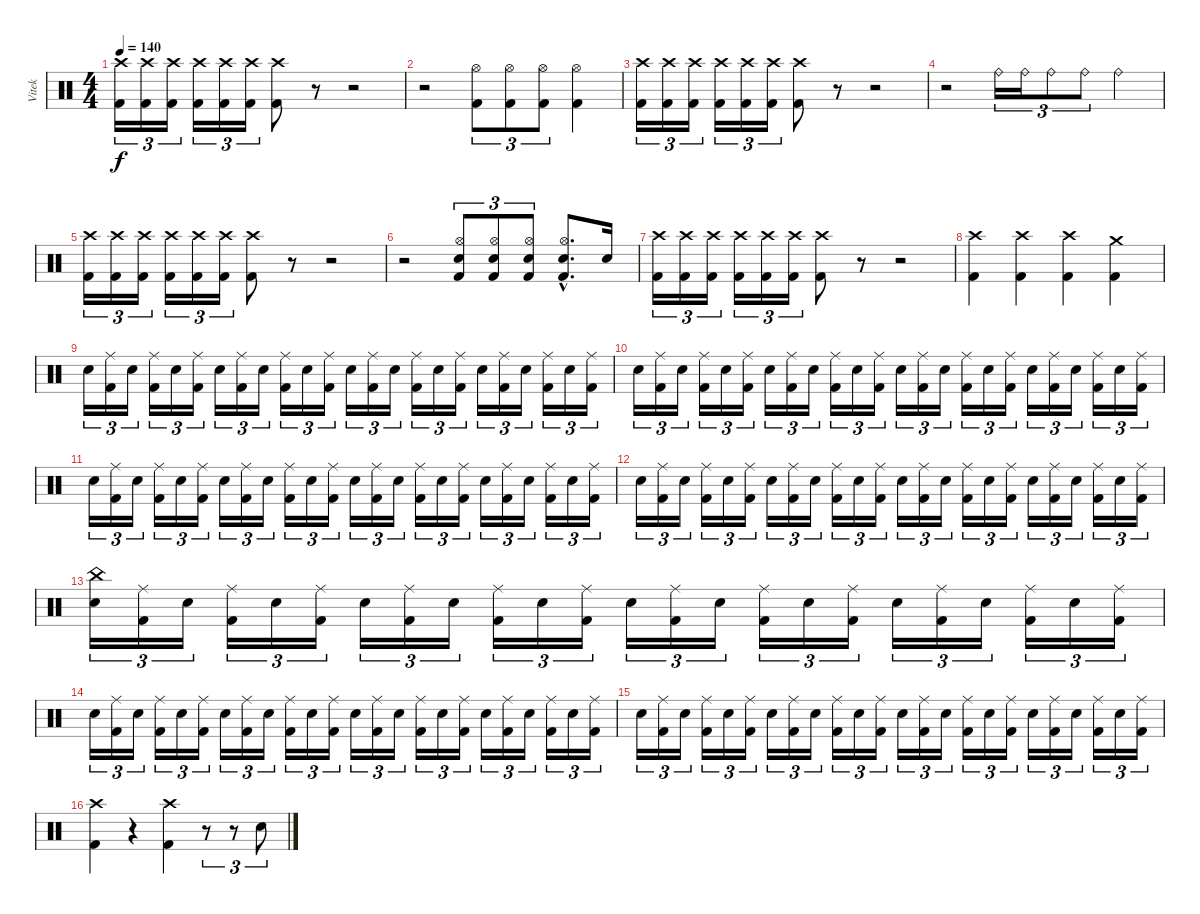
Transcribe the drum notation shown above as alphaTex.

\track ("Vitek" "Vitek") {instrument percussion}
\staff {score}
\articulation defaults
\ts (4 4)
\tempo 140
\clef neutral
\ks c
("Crash high (hit)" "Kick (hit) 2").16{tu (3 2) dy f} ("Crash high (hit)" "Kick (hit) 2").16{tu (3 2)} ("Crash high (hit)" "Kick (hit) 2").16{tu (3 2)} ("Crash high (hit)" "Kick (hit) 2").16{tu (3 2)} ("Crash high (hit)" "Kick (hit) 2").16{tu (3 2)} ("Crash high (hit)" "Kick (hit) 2").16{tu (3 2)} ("Crash high (hit)" "Kick (hit) 2").8 r.8{volume 0} r.2 |
r.2 ("Hi-Hat (open)" "Kick (hit) 2").8{tu (3 2) volume 13} ("Hi-Hat (open)" "Kick (hit) 2").8{tu (3 2)} ("Hi-Hat (open)" "Kick (hit) 2").8{tu (3 2)} ("Hi-Hat (open)" "Kick (hit) 2").4 |
("Crash high (hit)" "Kick (hit) 2").16{tu (3 2)} ("Crash high (hit)" "Kick (hit) 2").16{tu (3 2)} ("Crash high (hit)" "Kick (hit) 2").16{tu (3 2)} ("Crash high (hit)" "Kick (hit) 2").16{tu (3 2)} ("Crash high (hit)" "Kick (hit) 2").16{tu (3 2)} ("Crash high (hit)" "Kick (hit) 2").16{tu (3 2)} ("Crash high (hit)" "Kick (hit) 2").8 r.8{volume 0} r.2 |
r.2 "Ride (bell)".16{tu (3 2) volume 13} "Ride (bell)".16{tu (3 2)} "Ride (bell)".8{tu (3 2)} "Ride (bell)".8{tu (3 2)} "Ride (bell)".4 |
("Crash high (hit)" "Kick (hit) 2").16{tu (3 2)} ("Crash high (hit)" "Kick (hit) 2").16{tu (3 2)} ("Crash high (hit)" "Kick (hit) 2").16{tu (3 2)} ("Crash high (hit)" "Kick (hit) 2").16{tu (3 2)} ("Crash high (hit)" "Kick (hit) 2").16{tu (3 2)} ("Crash high (hit)" "Kick (hit) 2").16{tu (3 2)} ("Crash high (hit)" "Kick (hit) 2").8 r.8{volume 0} r.2 |
r.2 ("Hi-Hat (open)" "Electric Snare (hit)" "Kick (hit) 2").8{tu (3 2) volume 13} ("Hi-Hat (open)" "Electric Snare (hit)" "Kick (hit) 2").8{tu (3 2)} ("Hi-Hat (open)" "Electric Snare (hit)" "Kick (hit) 2").8{tu (3 2)} ("Hi-Hat (open)"{hac} "Electric Snare (hit)"{hac} "Kick (hit) 2"{hac}).8{d} "Electric Snare (hit)".16 |
("Crash high (hit)" "Kick (hit) 2").16{tu (3 2)} ("Crash high (hit)" "Kick (hit) 2").16{tu (3 2)} ("Crash high (hit)" "Kick (hit) 2").16{tu (3 2)} ("Crash high (hit)" "Kick (hit) 2").16{tu (3 2)} ("Crash high (hit)" "Kick (hit) 2").16{tu (3 2)} ("Crash high (hit)" "Kick (hit) 2").16{tu (3 2)} ("Crash high (hit)" "Kick (hit) 2").8 r.8{volume 0} r.2 |
("Crash high (hit)" "Kick (hit) 2").4{volume 16} ("Crash high (hit)" "Kick (hit) 2").4 ("Crash high (hit)" "Kick (hit) 2").4 ("Crash medium (hit)" "Kick (hit) 2").4 |
"Electric Snare (hit)".16{tu (3 2)} ("Ride (middle)" "Kick (hit) 2").16{tu (3 2)} "Electric Snare (hit)".16{tu (3 2)} ("Ride (middle)" "Kick (hit) 2").16{tu (3 2)} "Electric Snare (hit)".16{tu (3 2)} ("Ride (middle)" "Kick (hit) 2").16{tu (3 2)} "Electric Snare (hit)".16{tu (3 2)} ("Ride (middle)" "Kick (hit) 2").16{tu (3 2)} "Electric Snare (hit)".16{tu (3 2)} ("Ride (middle)" "Kick (hit) 2").16{tu (3 2)} "Electric Snare (hit)".16{tu (3 2)} ("Ride (middle)" "Kick (hit) 2").16{tu (3 2)} "Electric Snare (hit)".16{tu (3 2)} ("Ride (middle)" "Kick (hit) 2").16{tu (3 2)} "Electric Snare (hit)".16{tu (3 2)} ("Ride (middle)" "Kick (hit) 2").16{tu (3 2)} "Electric Snare (hit)".16{tu (3 2)} ("Ride (middle)" "Kick (hit) 2").16{tu (3 2)} "Electric Snare (hit)".16{tu (3 2)} ("Ride (middle)" "Kick (hit) 2").16{tu (3 2)} "Electric Snare (hit)".16{tu (3 2)} ("Ride (middle)" "Kick (hit) 2").16{tu (3 2)} "Electric Snare (hit)".16{tu (3 2)} ("Ride (middle)" "Kick (hit) 2").16{tu (3 2)} |
"Electric Snare (hit)".16{tu (3 2)} ("Ride (middle)" "Kick (hit) 2").16{tu (3 2)} "Electric Snare (hit)".16{tu (3 2)} ("Ride (middle)" "Kick (hit) 2").16{tu (3 2)} "Electric Snare (hit)".16{tu (3 2)} ("Ride (middle)" "Kick (hit) 2").16{tu (3 2)} "Electric Snare (hit)".16{tu (3 2)} ("Ride (middle)" "Kick (hit) 2").16{tu (3 2)} "Electric Snare (hit)".16{tu (3 2)} ("Ride (middle)" "Kick (hit) 2").16{tu (3 2)} "Electric Snare (hit)".16{tu (3 2)} ("Ride (middle)" "Kick (hit) 2").16{tu (3 2)} "Electric Snare (hit)".16{tu (3 2)} ("Ride (middle)" "Kick (hit) 2").16{tu (3 2)} "Electric Snare (hit)".16{tu (3 2)} ("Ride (middle)" "Kick (hit) 2").16{tu (3 2)} "Electric Snare (hit)".16{tu (3 2)} ("Ride (middle)" "Kick (hit) 2").16{tu (3 2)} "Electric Snare (hit)".16{tu (3 2)} ("Ride (middle)" "Kick (hit) 2").16{tu (3 2)} "Electric Snare (hit)".16{tu (3 2)} ("Ride (middle)" "Kick (hit) 2").16{tu (3 2)} "Electric Snare (hit)".16{tu (3 2)} ("Ride (middle)" "Kick (hit) 2").16{tu (3 2)} |
"Electric Snare (hit)".16{tu (3 2)} ("Ride (middle)" "Kick (hit) 2").16{tu (3 2)} "Electric Snare (hit)".16{tu (3 2)} ("Ride (middle)" "Kick (hit) 2").16{tu (3 2)} "Electric Snare (hit)".16{tu (3 2)} ("Ride (middle)" "Kick (hit) 2").16{tu (3 2)} "Electric Snare (hit)".16{tu (3 2)} ("Ride (middle)" "Kick (hit) 2").16{tu (3 2)} "Electric Snare (hit)".16{tu (3 2)} ("Ride (middle)" "Kick (hit) 2").16{tu (3 2)} "Electric Snare (hit)".16{tu (3 2)} ("Ride (middle)" "Kick (hit) 2").16{tu (3 2)} "Electric Snare (hit)".16{tu (3 2)} ("Ride (middle)" "Kick (hit) 2").16{tu (3 2)} "Electric Snare (hit)".16{tu (3 2)} ("Ride (middle)" "Kick (hit) 2").16{tu (3 2)} "Electric Snare (hit)".16{tu (3 2)} ("Ride (middle)" "Kick (hit) 2").16{tu (3 2)} "Electric Snare (hit)".16{tu (3 2)} ("Ride (middle)" "Kick (hit) 2").16{tu (3 2)} "Electric Snare (hit)".16{tu (3 2)} ("Ride (middle)" "Kick (hit) 2").16{tu (3 2)} "Electric Snare (hit)".16{tu (3 2)} ("Ride (middle)" "Kick (hit) 2").16{tu (3 2)} |
"Electric Snare (hit)".16{tu (3 2)} ("Ride (middle)" "Kick (hit) 2").16{tu (3 2)} "Electric Snare (hit)".16{tu (3 2)} ("Ride (middle)" "Kick (hit) 2").16{tu (3 2)} "Electric Snare (hit)".16{tu (3 2)} ("Ride (middle)" "Kick (hit) 2").16{tu (3 2)} "Electric Snare (hit)".16{tu (3 2)} ("Ride (middle)" "Kick (hit) 2").16{tu (3 2)} "Electric Snare (hit)".16{tu (3 2)} ("Ride (middle)" "Kick (hit) 2").16{tu (3 2)} "Electric Snare (hit)".16{tu (3 2)} ("Ride (middle)" "Kick (hit) 2").16{tu (3 2)} "Electric Snare (hit)".16{tu (3 2)} ("Ride (middle)" "Kick (hit) 2").16{tu (3 2)} "Electric Snare (hit)".16{tu (3 2)} ("Ride (middle)" "Kick (hit) 2").16{tu (3 2)} "Electric Snare (hit)".16{tu (3 2)} ("Ride (middle)" "Kick (hit) 2").16{tu (3 2)} "Electric Snare (hit)".16{tu (3 2)} ("Ride (middle)" "Kick (hit) 2").16{tu (3 2)} "Electric Snare (hit)".16{tu (3 2)} ("Ride (middle)" "Kick (hit) 2").16{tu (3 2)} "Electric Snare (hit)".16{tu (3 2)} ("Ride (middle)" "Kick (hit) 2").16{tu (3 2)} |
("China (hit)" "Electric Snare (hit)").16{tu (3 2)} ("Ride (middle)" "Kick (hit) 2").16{tu (3 2)} "Electric Snare (hit)".16{tu (3 2)} ("Ride (middle)" "Kick (hit) 2").16{tu (3 2)} "Electric Snare (hit)".16{tu (3 2)} ("Ride (middle)" "Kick (hit) 2").16{tu (3 2)} "Electric Snare (hit)".16{tu (3 2)} ("Ride (middle)" "Kick (hit) 2").16{tu (3 2)} "Electric Snare (hit)".16{tu (3 2)} ("Ride (middle)" "Kick (hit) 2").16{tu (3 2)} "Electric Snare (hit)".16{tu (3 2)} ("Ride (middle)" "Kick (hit) 2").16{tu (3 2)} "Electric Snare (hit)".16{tu (3 2)} ("Ride (middle)" "Kick (hit) 2").16{tu (3 2)} "Electric Snare (hit)".16{tu (3 2)} ("Ride (middle)" "Kick (hit) 2").16{tu (3 2)} "Electric Snare (hit)".16{tu (3 2)} ("Ride (middle)" "Kick (hit) 2").16{tu (3 2)} "Electric Snare (hit)".16{tu (3 2)} ("Ride (middle)" "Kick (hit) 2").16{tu (3 2)} "Electric Snare (hit)".16{tu (3 2)} ("Ride (middle)" "Kick (hit) 2").16{tu (3 2)} "Electric Snare (hit)".16{tu (3 2)} ("Ride (middle)" "Kick (hit) 2").16{tu (3 2)} |
"Electric Snare (hit)".16{tu (3 2)} ("Ride (middle)" "Kick (hit) 2").16{tu (3 2)} "Electric Snare (hit)".16{tu (3 2)} ("Ride (middle)" "Kick (hit) 2").16{tu (3 2)} "Electric Snare (hit)".16{tu (3 2)} ("Ride (middle)" "Kick (hit) 2").16{tu (3 2)} "Electric Snare (hit)".16{tu (3 2)} ("Ride (middle)" "Kick (hit) 2").16{tu (3 2)} "Electric Snare (hit)".16{tu (3 2)} ("Ride (middle)" "Kick (hit) 2").16{tu (3 2)} "Electric Snare (hit)".16{tu (3 2)} ("Ride (middle)" "Kick (hit) 2").16{tu (3 2)} "Electric Snare (hit)".16{tu (3 2)} ("Ride (middle)" "Kick (hit) 2").16{tu (3 2)} "Electric Snare (hit)".16{tu (3 2)} ("Ride (middle)" "Kick (hit) 2").16{tu (3 2)} "Electric Snare (hit)".16{tu (3 2)} ("Ride (middle)" "Kick (hit) 2").16{tu (3 2)} "Electric Snare (hit)".16{tu (3 2)} ("Ride (middle)" "Kick (hit) 2").16{tu (3 2)} "Electric Snare (hit)".16{tu (3 2)} ("Ride (middle)" "Kick (hit) 2").16{tu (3 2)} "Electric Snare (hit)".16{tu (3 2)} ("Ride (middle)" "Kick (hit) 2").16{tu (3 2)} |
"Electric Snare (hit)".16{tu (3 2)} ("Ride (middle)" "Kick (hit) 2").16{tu (3 2)} "Electric Snare (hit)".16{tu (3 2)} ("Ride (middle)" "Kick (hit) 2").16{tu (3 2)} "Electric Snare (hit)".16{tu (3 2)} ("Ride (middle)" "Kick (hit) 2").16{tu (3 2)} "Electric Snare (hit)".16{tu (3 2)} ("Ride (middle)" "Kick (hit) 2").16{tu (3 2)} "Electric Snare (hit)".16{tu (3 2)} ("Ride (middle)" "Kick (hit) 2").16{tu (3 2)} "Electric Snare (hit)".16{tu (3 2)} ("Ride (middle)" "Kick (hit) 2").16{tu (3 2)} "Electric Snare (hit)".16{tu (3 2)} ("Ride (middle)" "Kick (hit) 2").16{tu (3 2)} "Electric Snare (hit)".16{tu (3 2)} ("Ride (middle)" "Kick (hit) 2").16{tu (3 2)} "Electric Snare (hit)".16{tu (3 2)} ("Ride (middle)" "Kick (hit) 2").16{tu (3 2)} "Electric Snare (hit)".16{tu (3 2)} ("Ride (middle)" "Kick (hit) 2").16{tu (3 2)} "Electric Snare (hit)".16{tu (3 2)} ("Ride (middle)" "Kick (hit) 2").16{tu (3 2)} "Electric Snare (hit)".16{tu (3 2)} ("Ride (middle)" "Kick (hit) 2").16{tu (3 2)} |
("Crash high (hit)" "Kick (hit) 2").4 r.4{volume 0} ("Crash high (hit)" "Kick (hit) 2").4{volume 16} r.8{tu (3 2) volume 0} r.8{tu (3 2)} "Electric Snare (hit)".8{tu (3 2) volume 16}
